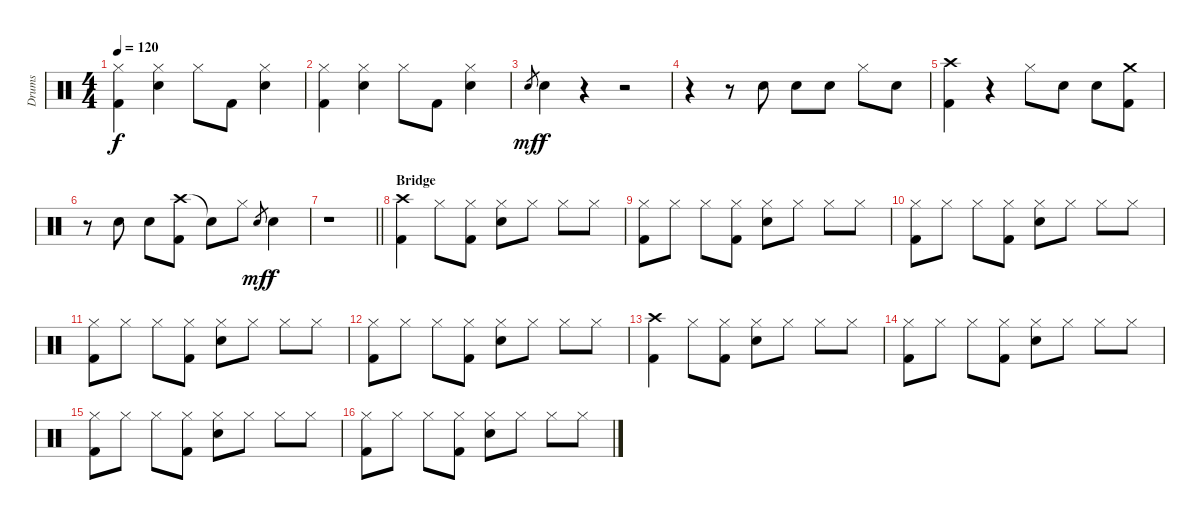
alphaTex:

\track ("Drums" "Drums") {instrument percussion}
\staff {score}
\articulation defaults
\ts (4 4)
\tempo 120
\clef neutral
\ks c
("Hi-Hat (closed)" "Kick (hit) 2").4{dy f} ("Hi-Hat (closed)" "Electric Snare (hit)").4 "Hi-Hat (closed)".8 "Kick (hit) 2".8 ("Hi-Hat (closed)" "Electric Snare (hit)").4 |
("Hi-Hat (closed)" "Kick (hit) 2").4 ("Hi-Hat (closed)" "Electric Snare (hit)").4 "Hi-Hat (closed)".8 "Kick (hit) 2".8 ("Hi-Hat (closed)" "Electric Snare (hit)").4 |
"Electric Snare (hit)".8{gr dy mf} "Electric Snare (hit)".4{dy f} r.4 r.2 |
r.4 r.8 "Electric Snare (hit)".8 "Electric Snare (hit)".8 "Electric Snare (hit)".8 "Hi-Hat (closed)".8 "Electric Snare (hit)".8 |
("Crash high (hit)" "Kick (hit) 2").4 r.4 "Hi-Hat (closed)".8 "Electric Snare (hit)".8 "Electric Snare (hit)".8 ("Crash medium (hit)" "Kick (hit) 2").8 |
r.8 "Electric Snare (hit)".8 "Electric Snare (hit)".8 ("Crash high (hit)" "Kick (hit) 2").8 "Snare (hit)"{t}.8 "Hi-Hat (closed)".8 "Electric Snare (hit)".8{gr dy mf} "Electric Snare (hit)".4{dy f} |
\barLineRight lightlight
r.1 |
\section ("" "Bridge")
("Crash high (hit)" "Kick (hit) 2").4 "Hi-Hat (closed)".8 ("Hi-Hat (closed)" "Kick (hit) 2").8 ("Hi-Hat (closed)" "Electric Snare (hit)").8 "Hi-Hat (closed)".8 "Hi-Hat (closed)".8 "Hi-Hat (closed)".8 |
("Hi-Hat (closed)" "Kick (hit) 2").8 "Hi-Hat (closed)".8 "Hi-Hat (closed)".8 ("Hi-Hat (closed)" "Kick (hit) 2").8 ("Hi-Hat (closed)" "Electric Snare (hit)").8 "Hi-Hat (closed)".8 "Hi-Hat (closed)".8 "Hi-Hat (closed)".8 |
("Hi-Hat (closed)" "Kick (hit) 2").8 "Hi-Hat (closed)".8 "Hi-Hat (closed)".8 ("Hi-Hat (closed)" "Kick (hit) 2").8 ("Hi-Hat (closed)" "Electric Snare (hit)").8 "Hi-Hat (closed)".8 "Hi-Hat (closed)".8 "Hi-Hat (closed)".8 |
("Hi-Hat (closed)" "Kick (hit) 2").8 "Hi-Hat (closed)".8 "Hi-Hat (closed)".8 ("Hi-Hat (closed)" "Kick (hit) 2").8 ("Hi-Hat (closed)" "Electric Snare (hit)").8 "Hi-Hat (closed)".8 "Hi-Hat (closed)".8 "Hi-Hat (closed)".8 |
("Hi-Hat (closed)" "Kick (hit) 2").8 "Hi-Hat (closed)".8 "Hi-Hat (closed)".8 ("Hi-Hat (closed)" "Kick (hit) 2").8 ("Hi-Hat (closed)" "Electric Snare (hit)").8 "Hi-Hat (closed)".8 "Hi-Hat (closed)".8 "Hi-Hat (closed)".8 |
("Crash high (hit)" "Kick (hit) 2").4 "Hi-Hat (closed)".8 ("Hi-Hat (closed)" "Kick (hit) 2").8 ("Hi-Hat (closed)" "Electric Snare (hit)").8 "Hi-Hat (closed)".8 "Hi-Hat (closed)".8 "Hi-Hat (closed)".8 |
("Hi-Hat (closed)" "Kick (hit) 2").8 "Hi-Hat (closed)".8 "Hi-Hat (closed)".8 ("Hi-Hat (closed)" "Kick (hit) 2").8 ("Hi-Hat (closed)" "Electric Snare (hit)").8 "Hi-Hat (closed)".8 "Hi-Hat (closed)".8 "Hi-Hat (closed)".8 |
("Hi-Hat (closed)" "Kick (hit) 2").8 "Hi-Hat (closed)".8 "Hi-Hat (closed)".8 ("Hi-Hat (closed)" "Kick (hit) 2").8 ("Hi-Hat (closed)" "Electric Snare (hit)").8 "Hi-Hat (closed)".8 "Hi-Hat (closed)".8 "Hi-Hat (closed)".8 |
("Hi-Hat (closed)" "Kick (hit) 2").8 "Hi-Hat (closed)".8 "Hi-Hat (closed)".8 ("Hi-Hat (closed)" "Kick (hit) 2").8 ("Hi-Hat (closed)" "Electric Snare (hit)").8 "Hi-Hat (closed)".8 "Hi-Hat (closed)".8 "Hi-Hat (closed)".8
